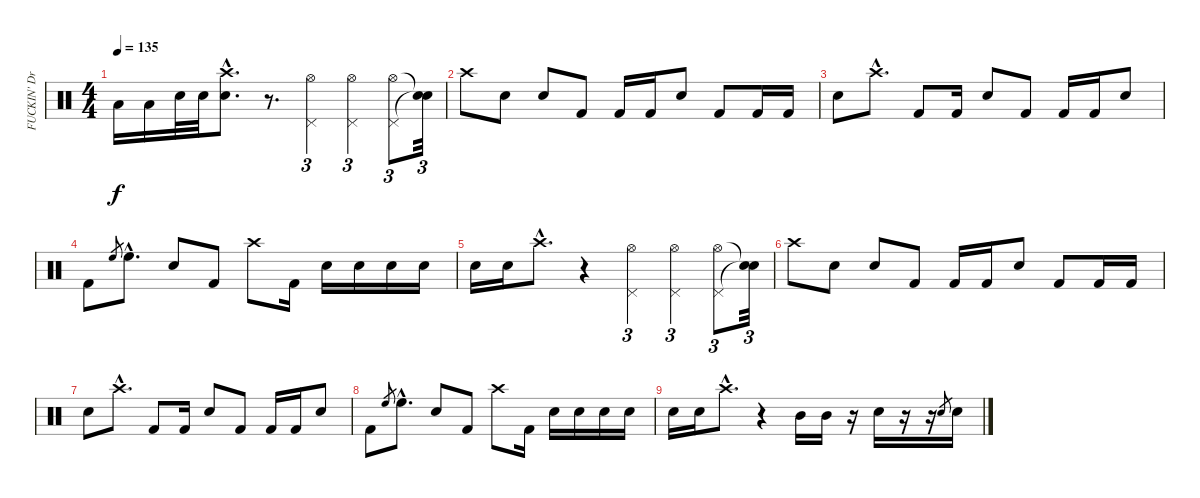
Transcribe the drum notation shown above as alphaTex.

\track ("FUCKIN' Drums" "FUCKIN' Dr") {instrument percussion}
\staff {score}
\articulation defaults
\ts (4 4)
\tempo 135
\clef neutral
\ks c "Low Floor Tom (hit)".16{dy f} "Low Floor Tom (hit)".16 "Electric Snare (hit)".32 "Electric Snare (hit)".32
("Electric Snare (hit)"{hac} "Crash high (hit)"{hac}).8{d} r.8{d} ("Hi-Hat (open)" "Pedal Hi-Hat (hit)").4{tu (3 2)} ("Hi-Hat (open)" "Pedal Hi-Hat (hit)").4{tu (3 2)} ("Hi-Hat (open)" "Pedal Hi-Hat (hit)").8{tu (3 2)} ("Snare (hit)"{t} "Snare (hit)"{t}).32{tu (3 2)} |
"Crash high (hit)".8 "Snare (hit) 2".8 "Snare (hit) 2".8 "Kick (hit) 2".8 "Kick (hit) 2".16 "Kick (hit) 2".16 "Snare (hit) 2".8 "Kick (hit) 2".8 "Kick (hit) 2".16 "Kick (hit) 2".16 |
"Snare (hit) 2".8 "Crash high (hit)"{hac}.8{d} "Kick (hit) 2".8 "Kick (hit) 2".16 "Snare (hit) 2".8 "Kick (hit) 2".8 "Kick (hit) 2".16 "Kick (hit) 2".16 "Snare (hit) 2".8 |
"Kick (hit) 2".8 "High Floor Tom (hit)".8{gr} "High Floor Tom (hit)"{hac}.8{d} "Snare (hit) 2".8 "Kick (hit) 2".8 "Crash high (hit)".8 "Kick (hit) 2".16 "Snare (hit) 2".16 "Snare (hit) 2".16 "Snare (hit) 2".16 "Snare (hit) 2".16 |
"Snare (hit) 2".16 "Snare (hit) 2".16 "Crash high (hit)"{hac}.8{d} r.4 ("Hi-Hat (open)" "Pedal Hi-Hat (hit)").4{tu (3 2)} ("Hi-Hat (open)" "Pedal Hi-Hat (hit)").4{tu (3 2)} ("Hi-Hat (open)" "Pedal Hi-Hat (hit)").8{tu (3 2)} ("Snare (hit)"{t} "Snare (hit)"{t}).32{tu (3 2)} |
"Crash high (hit)".8 "Snare (hit) 2".8 "Snare (hit) 2".8 "Kick (hit) 2".8 "Kick (hit) 2".16 "Kick (hit) 2".16 "Snare (hit) 2".8 "Kick (hit) 2".8 "Kick (hit) 2".16 "Kick (hit) 2".16 |
"Snare (hit) 2".8 "Crash high (hit)"{hac}.8{d} "Kick (hit) 2".8 "Kick (hit) 2".16 "Snare (hit) 2".8 "Kick (hit) 2".8 "Kick (hit) 2".16 "Kick (hit) 2".16 "Snare (hit) 2".8 |
"Kick (hit) 2".8 "High Floor Tom (hit)".8{gr} "High Floor Tom (hit)"{hac}.8{d} "Snare (hit) 2".8 "Kick (hit) 2".8 "Crash high (hit)".8 "Kick (hit) 2".16 "Snare (hit) 2".16 "Snare (hit) 2".16 "Snare (hit) 2".16 "Snare (hit) 2".16 |
"Snare (hit) 2".16 "Snare (hit) 2".16 "Crash high (hit)"{hac}.8{d} r.4 "Mid Tom (hit)".16 "Mid Tom (hit)".16 r.16 "Snare (hit) 2".16 r.16 r.16 "Snare (hit) 2".8{gr} "Snare (hit) 2".16
